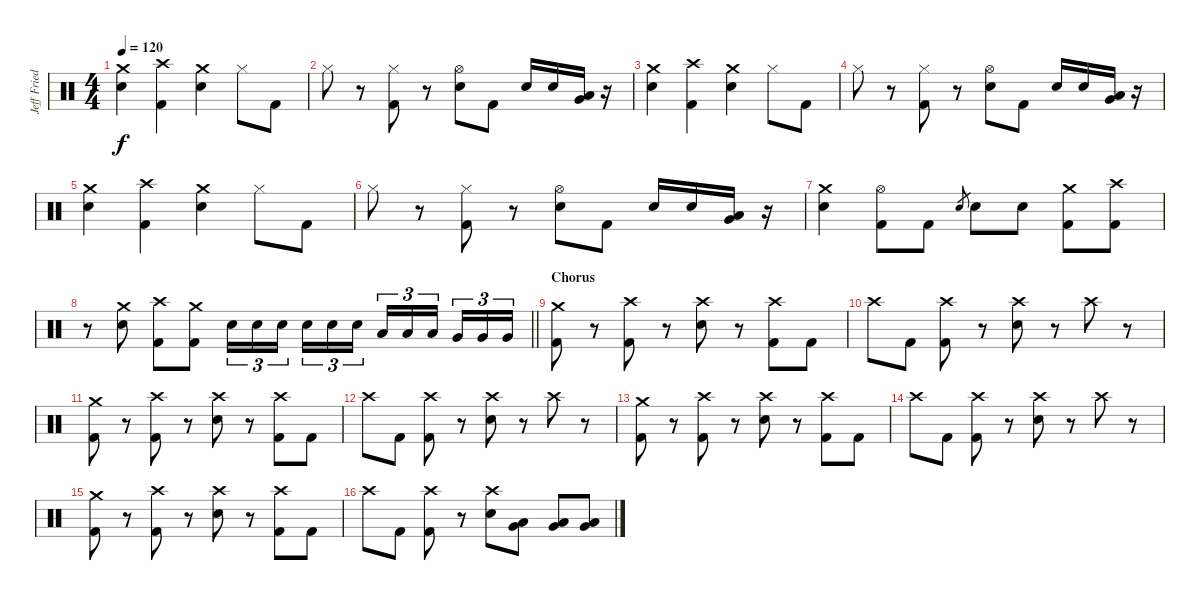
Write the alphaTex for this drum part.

\track ("Jeff Friedl" "Jeff Fried") {instrument percussion}
\staff {score}
\articulation defaults
\ts (4 4)
\tempo 120
\clef neutral
\ks c
("Crash medium (hit)" "Snare (hit) 2").4{dy f} ("Crash high (hit)" "Kick (hit) 2").4 ("Crash medium (hit)" "Snare (hit) 2").4 "Hi-Hat (closed)".8 "Kick (hit) 2".8 |
"Hi-Hat (closed)".8 r.8 ("Hi-Hat (closed)" "Kick (hit) 2").8 r.8 ("Hi-Hat (open)" "Snare (hit) 2").8 "Kick (hit) 2".8 "Snare (hit) 2".16 "Snare (hit) 2".16 ("Low Tom (hit)" "Very Low Tom (hit)").16 r.16 |
("Crash medium (hit)" "Snare (hit) 2").4 ("Crash high (hit)" "Kick (hit) 2").4 ("Crash medium (hit)" "Snare (hit) 2").4 "Hi-Hat (closed)".8 "Kick (hit) 2".8 |
"Hi-Hat (closed)".8 r.8 ("Hi-Hat (closed)" "Kick (hit) 2").8 r.8 ("Hi-Hat (open)" "Snare (hit) 2").8 "Kick (hit) 2".8 "Snare (hit) 2".16 "Snare (hit) 2".16 ("Low Tom (hit)" "Very Low Tom (hit)").16 r.16 |
("Crash medium (hit)" "Snare (hit) 2").4 ("Crash high (hit)" "Kick (hit) 2").4 ("Crash medium (hit)" "Snare (hit) 2").4 "Hi-Hat (closed)".8 "Kick (hit) 2".8 |
"Hi-Hat (closed)".8 r.8 ("Hi-Hat (closed)" "Kick (hit) 2").8 r.8 ("Hi-Hat (open)" "Snare (hit) 2").8 "Kick (hit) 2".8 "Snare (hit) 2".16 "Snare (hit) 2".16 ("Low Tom (hit)" "Very Low Tom (hit)").16 r.16 |
("Crash medium (hit)" "Snare (hit) 2").4 ("Hi-Hat (open)" "Kick (hit) 2").8 "Kick (hit) 2".8 "Snare (hit) 2".8{gr} "Snare (hit) 2".8 "Snare (hit) 2".8 ("Crash medium (hit)" "Kick (hit) 2").8 ("Crash high (hit)" "Kick (hit) 2").8 |
\barLineRight lightlight
r.8 ("Crash medium (hit)" "Snare (hit) 2").8 ("Crash high (hit)" "Kick (hit) 2").8 ("Crash medium (hit)" "Kick (hit) 2").8 "Snare (hit) 2".16{tu (3 2)} "Snare (hit) 2".16{tu (3 2)} "Snare (hit) 2".16{tu (3 2) beam splitsecondary} "Snare (hit) 2".16{tu (3 2)} "Snare (hit) 2".16{tu (3 2)} "Snare (hit) 2".16{tu (3 2)} "Low Tom (hit)".16{tu (3 2)} "Low Tom (hit)".16{tu (3 2)} "Low Tom (hit)".16{tu (3 2) beam splitsecondary} "Very Low Tom (hit)".16{tu (3 2)} "Very Low Tom (hit)".16{tu (3 2)} "Very Low Tom (hit)".16{tu (3 2)} |
\section ("" "Chorus")
("Crash medium (hit)" "Kick (hit) 2").8 r.8 ("Crash high (hit)" "Kick (hit) 2").8 r.8 ("Crash high (hit)" "Snare (hit) 2").8 r.8 ("Crash high (hit)" "Kick (hit) 2").8 "Kick (hit) 2".8 |
"Crash high (hit)".8 "Kick (hit) 2".8 ("Crash high (hit)" "Kick (hit) 2").8 r.8 ("Crash high (hit)" "Snare (hit) 2").8 r.8 "Crash high (hit)".8 r.8 |
("Crash medium (hit)" "Kick (hit) 2").8 r.8 ("Crash high (hit)" "Kick (hit) 2").8 r.8 ("Crash high (hit)" "Snare (hit) 2").8 r.8 ("Crash high (hit)" "Kick (hit) 2").8 "Kick (hit) 2".8 |
"Crash high (hit)".8 "Kick (hit) 2".8 ("Crash high (hit)" "Kick (hit) 2").8 r.8 ("Crash high (hit)" "Snare (hit) 2").8 r.8 "Crash high (hit)".8 r.8 |
("Crash medium (hit)" "Kick (hit) 2").8 r.8 ("Crash high (hit)" "Kick (hit) 2").8 r.8 ("Crash high (hit)" "Snare (hit) 2").8 r.8 ("Crash high (hit)" "Kick (hit) 2").8 "Kick (hit) 2".8 |
"Crash high (hit)".8 "Kick (hit) 2".8 ("Crash high (hit)" "Kick (hit) 2").8 r.8 ("Crash high (hit)" "Snare (hit) 2").8 r.8 "Crash high (hit)".8 r.8 |
("Crash medium (hit)" "Kick (hit) 2").8 r.8 ("Crash high (hit)" "Kick (hit) 2").8 r.8 ("Crash high (hit)" "Snare (hit) 2").8 r.8 ("Crash high (hit)" "Kick (hit) 2").8 "Kick (hit) 2".8 |
"Crash high (hit)".8 "Kick (hit) 2".8 ("Crash high (hit)" "Kick (hit) 2").8 r.8 ("Crash high (hit)" "Snare (hit) 2").8 ("Low Tom (hit)" "Very Low Tom (hit)").8 ("Very Low Tom (hit)" "Low Floor Tom (hit)").8 ("Very Low Tom (hit)" "Low Floor Tom (hit)").8
